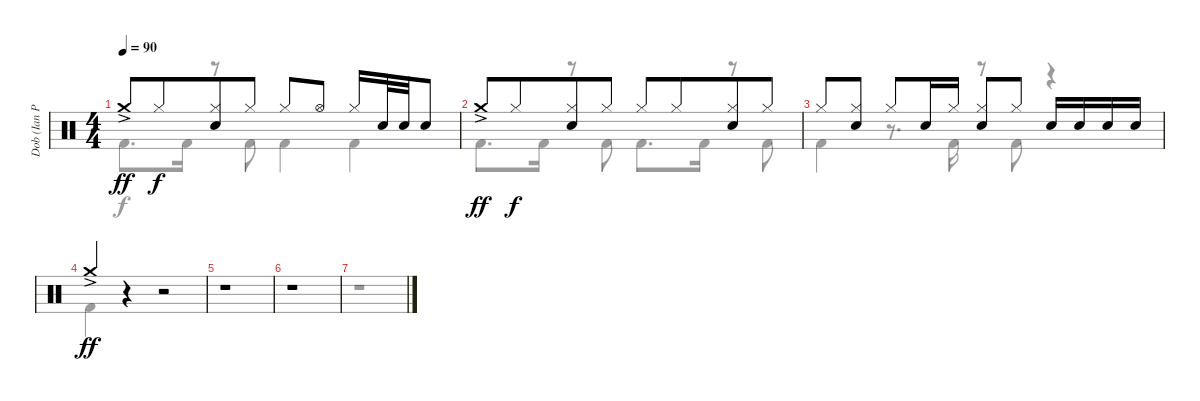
\track ("Dob (Ian Paice)" "Dob (Ian P") {instrument percussion}
\staff {score}
\articulation defaults
\voice
\ts (4 4)
\tempo 90
\clef neutral
\ks c "Crash medium (hit)"{ac}.8{dy ff} "Hi-Hat (closed)".8{dy f beam merge}
("Hi-Hat (closed)" "Electric Snare (hit)").8 "Hi-Hat (closed)".8 "Hi-Hat (closed)".8 "Hi-Hat (open)".8 "Hi-Hat (closed)".16 "Electric Snare (hit)".32 "Electric Snare (hit)".32 "Electric Snare (hit)".8 |
"Crash medium (hit)"{ac}.8{dy ff} "Hi-Hat (closed)".8{dy f beam merge} ("Hi-Hat (closed)" "Electric Snare (hit)").8 "Hi-Hat (closed)".8 "Hi-Hat (closed)".8 "Hi-Hat (closed)".8{beam merge} ("Hi-Hat (closed)" "Electric Snare (hit)").8 "Hi-Hat (closed)".8 |
"Hi-Hat (closed)".8{beam merge} ("Hi-Hat (closed)" "Electric Snare (hit)").8{beam split} "Hi-Hat (closed)".8 "Electric Snare (hit)".16 "Hi-Hat (closed)".16{beam split} ("Hi-Hat (closed)" "Electric Snare (hit)").8 "Hi-Hat (closed)".8 "Electric Snare (hit)".16 "Electric Snare (hit)".16 "Electric Snare (hit)".16 "Electric Snare (hit)".16 |
"Crash medium (hit)"{ac}.4{dy ff} r.4 r.2 |
r.1 |
r.1 |
\voice
\clef neutral
\ottava regular
\simile none
\ks c "Kick (hit) 2".8{d dy f} "Kick (hit) 2".16
r.8 "Kick (hit) 2".8 "Kick (hit) 2".4 "Kick (hit) 2".4 |
"Kick (hit) 2".8{d} "Kick (hit) 2".16 r.8 "Kick (hit) 2".8 "Kick (hit) 2".8{d} "Kick (hit) 2".16 r.8 "Kick (hit) 2".8 |
"Kick (hit) 2".4 r.8{d} "Kick (hit) 2".16 r.8 "Kick (hit) 2".8 r.4 |
"Kick (hit) 2".4 r.4 r.2 |
r.1 |
r.1 |
r.1
